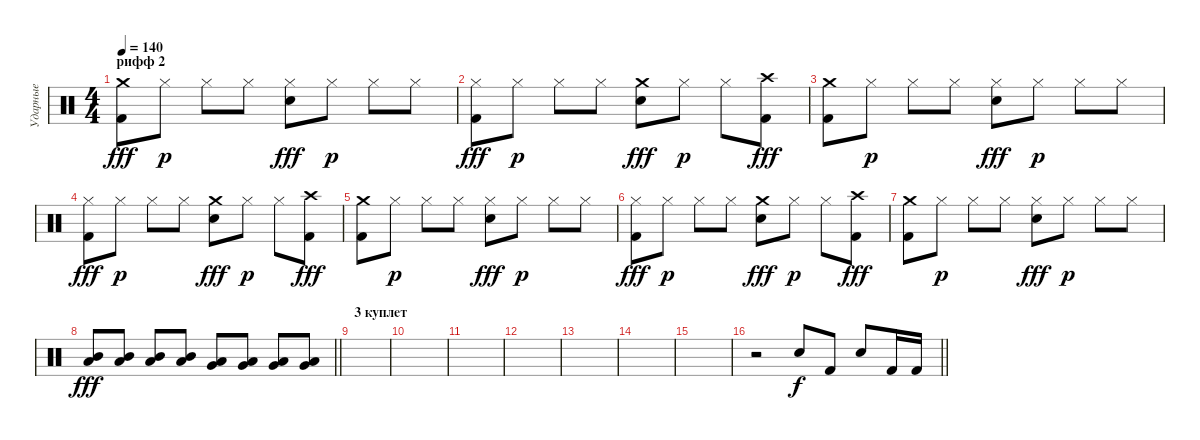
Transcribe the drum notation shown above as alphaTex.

\track ("Ударные" "Ударные") {instrument percussion}
\staff {score}
\articulation defaults
\ts (4 4)
\section ("" "рифф 2")
\tempo 140
\clef neutral
\ks c
("Crash medium (hit)" "Kick (hit) 2").8{dy fff} "Hi-Hat (closed)".8{dy p} "Hi-Hat (closed)".8 "Hi-Hat (closed)".8 ("Hi-Hat (closed)" "Snare (hit) 2").8{dy fff} "Hi-Hat (closed)".8{dy p} "Hi-Hat (closed)".8 "Hi-Hat (closed)".8 |
("Hi-Hat (closed)" "Kick (hit) 2").8{dy fff} "Hi-Hat (closed)".8{dy p} "Hi-Hat (closed)".8 "Hi-Hat (closed)".8 ("Crash medium (hit)" "Snare (hit) 2").8{dy fff} "Hi-Hat (closed)".8{dy p} "Hi-Hat (closed)".8 ("Crash high (hit)" "Kick (hit) 2").8{dy fff} |
("Crash medium (hit)" "Kick (hit) 2").8 "Hi-Hat (closed)".8{dy p} "Hi-Hat (closed)".8 "Hi-Hat (closed)".8 ("Hi-Hat (closed)" "Snare (hit) 2").8{dy fff} "Hi-Hat (closed)".8{dy p} "Hi-Hat (closed)".8 "Hi-Hat (closed)".8 |
("Hi-Hat (closed)" "Kick (hit) 2").8{dy fff} "Hi-Hat (closed)".8{dy p} "Hi-Hat (closed)".8 "Hi-Hat (closed)".8 ("Crash medium (hit)" "Snare (hit) 2").8{dy fff} "Hi-Hat (closed)".8{dy p} "Hi-Hat (closed)".8 ("Crash high (hit)" "Kick (hit) 2").8{dy fff} |
("Crash medium (hit)" "Kick (hit) 2").8 "Hi-Hat (closed)".8{dy p} "Hi-Hat (closed)".8 "Hi-Hat (closed)".8 ("Hi-Hat (closed)" "Snare (hit) 2").8{dy fff} "Hi-Hat (closed)".8{dy p} "Hi-Hat (closed)".8 "Hi-Hat (closed)".8 |
("Hi-Hat (closed)" "Kick (hit) 2").8{dy fff} "Hi-Hat (closed)".8{dy p} "Hi-Hat (closed)".8 "Hi-Hat (closed)".8 ("Crash medium (hit)" "Snare (hit) 2").8{dy fff} "Hi-Hat (closed)".8{dy p} "Hi-Hat (closed)".8 ("Crash high (hit)" "Kick (hit) 2").8{dy fff} |
("Crash medium (hit)" "Kick (hit) 2").8 "Hi-Hat (closed)".8{dy p} "Hi-Hat (closed)".8 "Hi-Hat (closed)".8 ("Hi-Hat (closed)" "Snare (hit) 2").8{dy fff} "Hi-Hat (closed)".8{dy p} "Hi-Hat (closed)".8 "Hi-Hat (closed)".8 |
\barLineRight lightlight
("Mid Tom (hit)" "Low Tom (hit)").8{dy fff} ("Mid Tom (hit)" "Low Tom (hit)").8 ("Mid Tom (hit)" "Low Tom (hit)").8 ("Mid Tom (hit)" "Low Tom (hit)").8 ("Low Tom (hit)" "Very Low Tom (hit)").8 ("Low Tom (hit)" "Very Low Tom (hit)").8 ("Low Tom (hit)" "Very Low Tom (hit)").8 ("Low Tom (hit)" "Very Low Tom (hit)").8 |
\section ("" "3 куплет")
|
|
|
|
|
|
|
\barLineRight lightlight
r.2 "Snare (hit) 2".8{dy f} "Kick (hit) 2".8 "Snare (hit) 2".8 "Kick (hit) 2".16 "Kick (hit) 2".16
